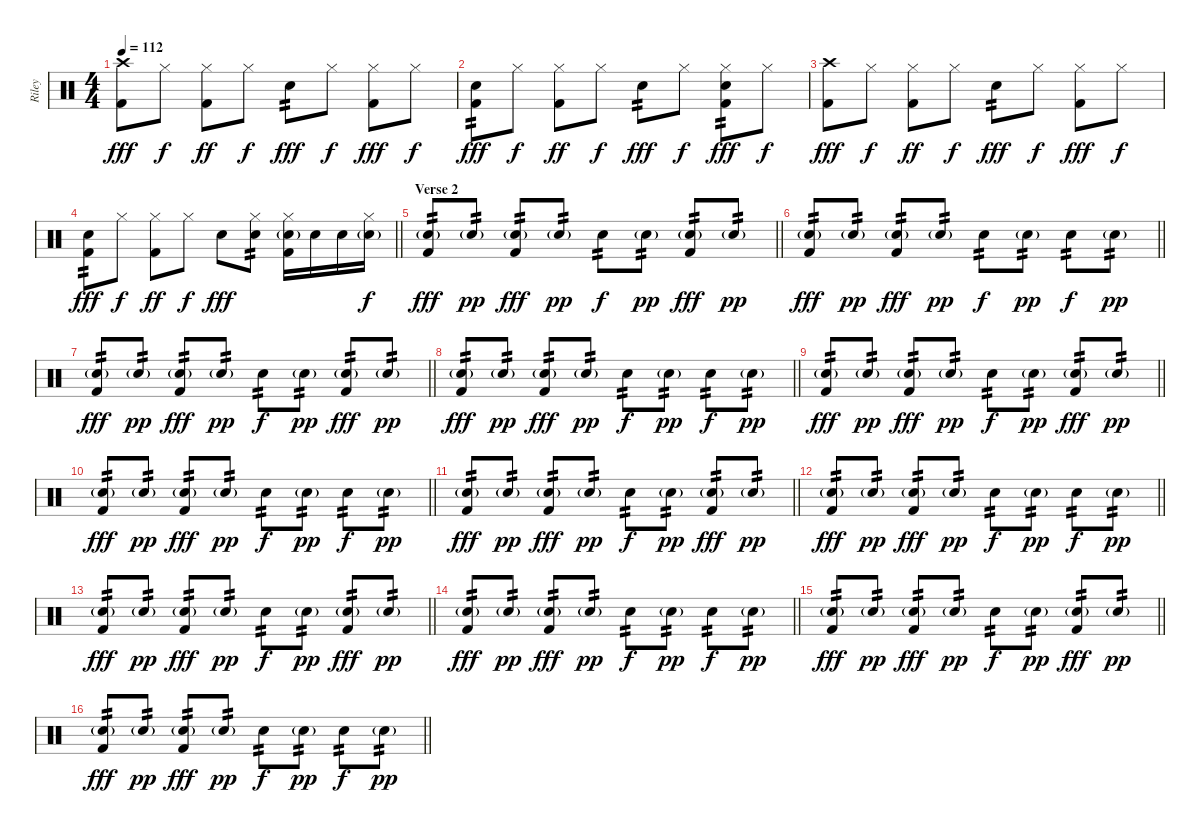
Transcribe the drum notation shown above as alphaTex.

\track ("Riley" "Riley") {instrument percussion}
\staff {score}
\articulation defaults
\ts (4 4)
\tempo 112
\clef neutral
\ks c
("Crash high (hit)" "Kick (hit) 2").8{dy fff} "Hi-Hat (closed)".8{dy f} ("Hi-Hat (closed)" "Kick (hit) 2").8{dy ff} "Hi-Hat (closed)".8{dy f} "Snare (hit) 2".8{tp 2 dy fff} "Hi-Hat (closed)".8{dy f} ("Hi-Hat (closed)" "Kick (hit) 2").8{dy fff} "Hi-Hat (closed)".8{dy f} |
("Snare (hit) 2" "Kick (hit) 2").8{tp 2 dy fff} "Hi-Hat (closed)".8{dy f} ("Hi-Hat (closed)" "Kick (hit) 2").8{dy ff} "Hi-Hat (closed)".8{dy f} "Snare (hit) 2".8{tp 2 dy fff} "Hi-Hat (closed)".8{dy f} ("Hi-Hat (closed)" "Snare (hit) 2" "Kick (hit) 2").8{tp 2 dy fff} "Hi-Hat (closed)".8{dy f} |
("Crash high (hit)" "Kick (hit) 2").8{dy fff} "Hi-Hat (closed)".8{dy f} ("Hi-Hat (closed)" "Kick (hit) 2").8{dy ff} "Hi-Hat (closed)".8{dy f} "Snare (hit) 2".8{tp 2 dy fff} "Hi-Hat (closed)".8{dy f} ("Hi-Hat (closed)" "Kick (hit) 2").8{dy fff} "Hi-Hat (closed)".8{dy f} |
\barLineRight lightlight
("Snare (hit) 2" "Kick (hit) 2").8{tp 2 dy fff} "Hi-Hat (closed)".8{dy f} ("Hi-Hat (closed)" "Kick (hit) 2").8{dy ff} "Hi-Hat (closed)".8{dy f} "Snare (hit) 2".8{dy fff} ("Hi-Hat (closed)" "Snare (hit) 2").8{tp 2} ("Hi-Hat (closed)" "Snare (hit) 2"{g} "Kick (hit) 2").16 "Snare (hit) 2".16 "Snare (hit) 2".16 ("Hi-Hat (closed)" "Snare (hit) 2"{g}).16{dy f} |
\section ("" "Verse 2")
\barLineRight lightlight
("Snare (hit) 2"{g} "Kick (hit) 2").8{tp 2 dy fff} "Snare (hit) 2"{g}.8{tp 2 dy pp} ("Snare (hit) 2"{g} "Kick (hit) 2").8{tp 2 dy fff} "Snare (hit) 2"{g}.8{tp 2 dy pp} "Snare (hit) 2".8{tp 2 dy f} "Snare (hit) 2"{g}.8{tp 2 dy pp} ("Snare (hit) 2"{g} "Kick (hit) 2").8{tp 2 dy fff} "Snare (hit) 2"{g}.8{tp 2 dy pp} |
\section ("" "")
\barLineRight lightlight
("Snare (hit) 2"{g} "Kick (hit) 2").8{tp 2 dy fff} "Snare (hit) 2"{g}.8{tp 2 dy pp} ("Snare (hit) 2"{g} "Kick (hit) 2").8{tp 2 dy fff} "Snare (hit) 2"{g}.8{tp 2 dy pp} "Snare (hit) 2".8{tp 2 dy f} "Snare (hit) 2"{g}.8{tp 2 dy pp} "Snare (hit) 2".8{tp 2 dy f} "Snare (hit) 2"{g}.8{tp 2 dy pp} |
\section ("" "")
\barLineRight lightlight
("Snare (hit) 2"{g} "Kick (hit) 2").8{tp 2 dy fff} "Snare (hit) 2"{g}.8{tp 2 dy pp} ("Snare (hit) 2"{g} "Kick (hit) 2").8{tp 2 dy fff} "Snare (hit) 2"{g}.8{tp 2 dy pp} "Snare (hit) 2".8{tp 2 dy f} "Snare (hit) 2"{g}.8{tp 2 dy pp} ("Snare (hit) 2"{g} "Kick (hit) 2").8{tp 2 dy fff} "Snare (hit) 2"{g}.8{tp 2 dy pp} |
\barLineRight lightlight
("Snare (hit) 2"{g} "Kick (hit) 2").8{tp 2 dy fff} "Snare (hit) 2"{g}.8{tp 2 dy pp} ("Snare (hit) 2"{g} "Kick (hit) 2").8{tp 2 dy fff} "Snare (hit) 2"{g}.8{tp 2 dy pp} "Snare (hit) 2".8{tp 2 dy f} "Snare (hit) 2"{g}.8{tp 2 dy pp} "Snare (hit) 2".8{tp 2 dy f} "Snare (hit) 2"{g}.8{tp 2 dy pp} |
\barLineRight lightlight
("Snare (hit) 2"{g} "Kick (hit) 2").8{tp 2 dy fff} "Snare (hit) 2"{g}.8{tp 2 dy pp} ("Snare (hit) 2"{g} "Kick (hit) 2").8{tp 2 dy fff} "Snare (hit) 2"{g}.8{tp 2 dy pp} "Snare (hit) 2".8{tp 2 dy f} "Snare (hit) 2"{g}.8{tp 2 dy pp} ("Snare (hit) 2"{g} "Kick (hit) 2").8{tp 2 dy fff} "Snare (hit) 2"{g}.8{tp 2 dy pp} |
\barLineRight lightlight
("Snare (hit) 2"{g} "Kick (hit) 2").8{tp 2 dy fff} "Snare (hit) 2"{g}.8{tp 2 dy pp} ("Snare (hit) 2"{g} "Kick (hit) 2").8{tp 2 dy fff} "Snare (hit) 2"{g}.8{tp 2 dy pp} "Snare (hit) 2".8{tp 2 dy f} "Snare (hit) 2"{g}.8{tp 2 dy pp} "Snare (hit) 2".8{tp 2 dy f} "Snare (hit) 2"{g}.8{tp 2 dy pp} |
\barLineRight lightlight
("Snare (hit) 2"{g} "Kick (hit) 2").8{tp 2 dy fff} "Snare (hit) 2"{g}.8{tp 2 dy pp} ("Snare (hit) 2"{g} "Kick (hit) 2").8{tp 2 dy fff} "Snare (hit) 2"{g}.8{tp 2 dy pp} "Snare (hit) 2".8{tp 2 dy f} "Snare (hit) 2"{g}.8{tp 2 dy pp} ("Snare (hit) 2"{g} "Kick (hit) 2").8{tp 2 dy fff} "Snare (hit) 2"{g}.8{tp 2 dy pp} |
\barLineRight lightlight
("Snare (hit) 2"{g} "Kick (hit) 2").8{tp 2 dy fff} "Snare (hit) 2"{g}.8{tp 2 dy pp} ("Snare (hit) 2"{g} "Kick (hit) 2").8{tp 2 dy fff} "Snare (hit) 2"{g}.8{tp 2 dy pp} "Snare (hit) 2".8{tp 2 dy f} "Snare (hit) 2"{g}.8{tp 2 dy pp} "Snare (hit) 2".8{tp 2 dy f} "Snare (hit) 2"{g}.8{tp 2 dy pp} |
\barLineRight lightlight
("Snare (hit) 2"{g} "Kick (hit) 2").8{tp 2 dy fff} "Snare (hit) 2"{g}.8{tp 2 dy pp} ("Snare (hit) 2"{g} "Kick (hit) 2").8{tp 2 dy fff} "Snare (hit) 2"{g}.8{tp 2 dy pp} "Snare (hit) 2".8{tp 2 dy f} "Snare (hit) 2"{g}.8{tp 2 dy pp} ("Snare (hit) 2"{g} "Kick (hit) 2").8{tp 2 dy fff} "Snare (hit) 2"{g}.8{tp 2 dy pp} |
\barLineRight lightlight
("Snare (hit) 2"{g} "Kick (hit) 2").8{tp 2 dy fff} "Snare (hit) 2"{g}.8{tp 2 dy pp} ("Snare (hit) 2"{g} "Kick (hit) 2").8{tp 2 dy fff} "Snare (hit) 2"{g}.8{tp 2 dy pp} "Snare (hit) 2".8{tp 2 dy f} "Snare (hit) 2"{g}.8{tp 2 dy pp} "Snare (hit) 2".8{tp 2 dy f} "Snare (hit) 2"{g}.8{tp 2 dy pp} |
\barLineRight lightlight
("Snare (hit) 2"{g} "Kick (hit) 2").8{tp 2 dy fff} "Snare (hit) 2"{g}.8{tp 2 dy pp} ("Snare (hit) 2"{g} "Kick (hit) 2").8{tp 2 dy fff} "Snare (hit) 2"{g}.8{tp 2 dy pp} "Snare (hit) 2".8{tp 2 dy f} "Snare (hit) 2"{g}.8{tp 2 dy pp} ("Snare (hit) 2"{g} "Kick (hit) 2").8{tp 2 dy fff} "Snare (hit) 2"{g}.8{tp 2 dy pp} |
\barLineRight lightlight
("Snare (hit) 2"{g} "Kick (hit) 2").8{tp 2 dy fff} "Snare (hit) 2"{g}.8{tp 2 dy pp} ("Snare (hit) 2"{g} "Kick (hit) 2").8{tp 2 dy fff} "Snare (hit) 2"{g}.8{tp 2 dy pp} "Snare (hit) 2".8{tp 2 dy f} "Snare (hit) 2"{g}.8{tp 2 dy pp} "Snare (hit) 2".8{tp 2 dy f} "Snare (hit) 2"{g}.8{tp 2 dy pp}
